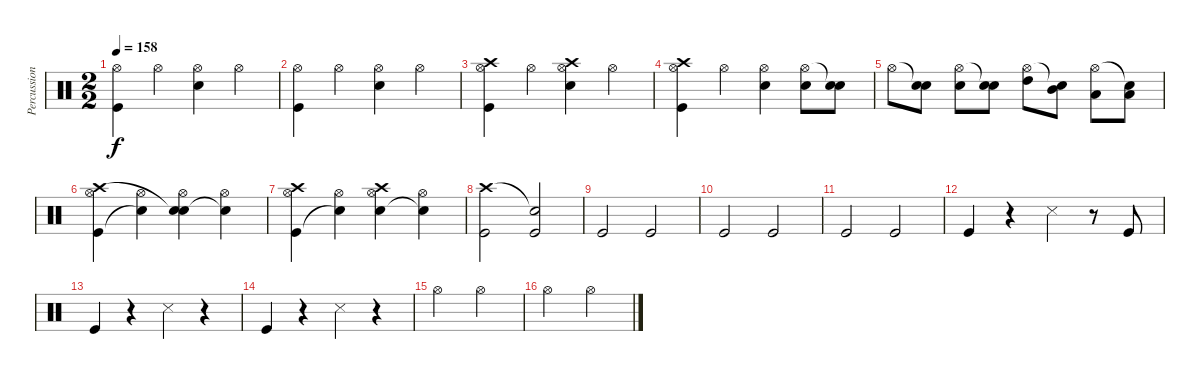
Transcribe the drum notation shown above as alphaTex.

\track ("Percussion" "Percussion") {instrument percussion}
\staff {score}
\articulation defaults
\ts (2 2)
\tempo 158
\clef neutral
\ks c
("Hi-Hat (open)" "Kick (hit)").4{dy f} "Hi-Hat (open)".4 ("Hi-Hat (open)" "Snare (hit) 2").4 "Hi-Hat (open)".4 |
("Hi-Hat (open)" "Kick (hit)").4 "Hi-Hat (open)".4 ("Hi-Hat (open)" "Snare (hit) 2").4 "Hi-Hat (open)".4 |
("Hi-Hat (open)" "Kick (hit)" "Crash high (hit)").4 "Hi-Hat (open)".4 ("Hi-Hat (open)" "Snare (hit) 2" "Crash high (hit)").4 "Hi-Hat (open)".4 |
("Hi-Hat (open)" "Kick (hit)" "Crash high (hit)").4 "Hi-Hat (open)".4 ("Hi-Hat (open)" "Snare (hit) 2").4 ("Hi-Hat (open)" "Snare (hit) 2").8 ("Snare (hit)"{t} "Snare (hit) 2").8 |
"Hi-Hat (open)".8 ("Snare (hit)"{t} "Snare (hit) 2").8 ("Hi-Hat (open)" "Snare (hit) 2").8 ("Snare (hit)"{t} "Snare (hit) 2").8 ("Hi-Hat (open)" "High Tom (hit)").8 ("Snare (hit)"{t} "Mid Tom (hit)").8 ("Hi-Hat (open)" "Low Tom (hit)").8 ("Snare (hit)"{t} "Low Floor Tom (hit)").8 |
("Hi-Hat (open)" "Kick (hit)" "Crash high (hit)").4 ("Hi-Hat (open)" "Snare (hit)"{t}).4 ("Hi-Hat (open)" "Snare (hit) 2" "Snare (hit)"{t}).4 ("Hi-Hat (open)" "Snare (hit)"{t}).4 |
("Hi-Hat (open)" "Kick (hit)" "Crash high (hit)").4 ("Hi-Hat (open)" "Snare (hit)"{t}).4 ("Hi-Hat (open)" "Snare (hit) 2" "Crash high (hit)").4 ("Hi-Hat (open)" "Snare (hit)"{t}).4 |
("Kick (hit)" "Crash high (hit)").2 ("Kick (hit)" "Snare (hit)"{t}).2 |
"Kick (hit)".2 "Kick (hit)".2 |
"Kick (hit)".2 "Kick (hit)".2 |
"Kick (hit)".2 "Kick (hit)".2 |
"Kick (hit)".4 r.4 "Snare (side stick) 3".4 r.8 "Kick (hit)".8 |
"Kick (hit)".4 r.4 "Snare (side stick) 3".4 r.4 |
"Kick (hit)".4 r.4 "Snare (side stick) 3".4 r.4 |
"Hi-Hat (open)".2 "Hi-Hat (open)".2 |
"Hi-Hat (open)".2 "Hi-Hat (open)".2
